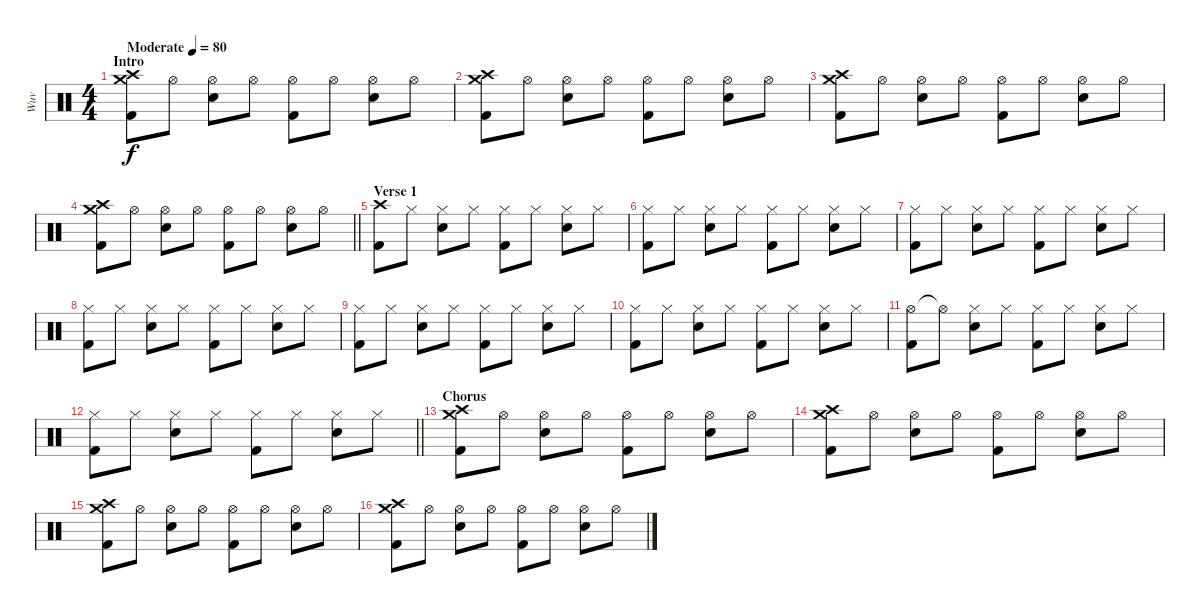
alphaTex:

\track ("Wuv" "Wuv") {instrument percussion}
\staff {score}
\articulation defaults
\ts (4 4)
\section ("" "Intro")
\tempo (80 "Moderate")
\clef neutral
\ks c
("Crash high (hit)" "Crash medium (hit)" "Kick (hit) 2").8{dy f} "Hi-Hat (open)".8 ("Hi-Hat (open)" "Electric Snare (hit)").8 "Hi-Hat (open)".8 ("Hi-Hat (open)" "Kick (hit) 2").8 "Hi-Hat (open)".8 ("Hi-Hat (open)" "Electric Snare (hit)").8 "Hi-Hat (open)".8 |
("Crash high (hit)" "Crash medium (hit)" "Kick (hit) 2").8 "Hi-Hat (open)".8 ("Hi-Hat (open)" "Electric Snare (hit)").8 "Hi-Hat (open)".8 ("Hi-Hat (open)" "Kick (hit) 2").8 "Hi-Hat (open)".8 ("Hi-Hat (open)" "Electric Snare (hit)").8 "Hi-Hat (open)".8 |
("Crash high (hit)" "Crash medium (hit)" "Kick (hit) 2").8 "Hi-Hat (open)".8 ("Hi-Hat (open)" "Electric Snare (hit)").8 "Hi-Hat (open)".8 ("Hi-Hat (open)" "Kick (hit) 2").8 "Hi-Hat (open)".8 ("Hi-Hat (open)" "Electric Snare (hit)").8 "Hi-Hat (open)".8 |
\barLineRight lightlight
("Crash high (hit)" "Crash medium (hit)" "Kick (hit) 2").8 "Hi-Hat (open)".8 ("Hi-Hat (open)" "Electric Snare (hit)").8 "Hi-Hat (open)".8 ("Hi-Hat (open)" "Kick (hit) 2").8 "Hi-Hat (open)".8 ("Hi-Hat (open)" "Electric Snare (hit)").8 "Hi-Hat (open)".8 |
\section ("" "Verse 1")
("Crash high (hit)" "Kick (hit) 2").8 "Hi-Hat (closed)".8 ("Hi-Hat (closed)" "Electric Snare (hit)").8 "Hi-Hat (closed)".8 ("Hi-Hat (closed)" "Kick (hit) 2").8 "Hi-Hat (closed)".8 ("Hi-Hat (closed)" "Electric Snare (hit)").8 "Hi-Hat (closed)".8 |
("Hi-Hat (closed)" "Kick (hit) 2").8 "Hi-Hat (closed)".8 ("Hi-Hat (closed)" "Electric Snare (hit)").8 "Hi-Hat (closed)".8 ("Hi-Hat (closed)" "Kick (hit) 2").8 "Hi-Hat (closed)".8 ("Hi-Hat (closed)" "Electric Snare (hit)").8 "Hi-Hat (closed)".8 |
("Hi-Hat (closed)" "Kick (hit) 2").8 "Hi-Hat (closed)".8 ("Hi-Hat (closed)" "Electric Snare (hit)").8 "Hi-Hat (closed)".8 ("Hi-Hat (closed)" "Kick (hit) 2").8 "Hi-Hat (closed)".8 ("Hi-Hat (closed)" "Electric Snare (hit)").8 "Hi-Hat (closed)".8 |
("Hi-Hat (closed)" "Kick (hit) 2").8 "Hi-Hat (closed)".8 ("Hi-Hat (closed)" "Electric Snare (hit)").8 "Hi-Hat (closed)".8 ("Hi-Hat (closed)" "Kick (hit) 2").8 "Hi-Hat (closed)".8 ("Hi-Hat (closed)" "Electric Snare (hit)").8 "Hi-Hat (closed)".8 |
("Hi-Hat (closed)" "Kick (hit) 2").8 "Hi-Hat (closed)".8 ("Hi-Hat (closed)" "Electric Snare (hit)").8 "Hi-Hat (closed)".8 ("Hi-Hat (closed)" "Kick (hit) 2").8 "Hi-Hat (closed)".8 ("Hi-Hat (closed)" "Electric Snare (hit)").8 "Hi-Hat (closed)".8 |
("Hi-Hat (closed)" "Kick (hit) 2").8 "Hi-Hat (closed)".8 ("Hi-Hat (closed)" "Electric Snare (hit)").8 "Hi-Hat (closed)".8 ("Hi-Hat (closed)" "Kick (hit) 2").8 "Hi-Hat (closed)".8 ("Hi-Hat (closed)" "Electric Snare (hit)").8 "Hi-Hat (closed)".8 |
("Hi-Hat (open)" "Kick (hit) 2").8 "Hi-Hat (open)"{t}.8 ("Hi-Hat (closed)" "Electric Snare (hit)").8 "Hi-Hat (closed)".8 ("Hi-Hat (closed)" "Kick (hit) 2").8 "Hi-Hat (closed)".8 ("Hi-Hat (closed)" "Electric Snare (hit)").8 "Hi-Hat (closed)".8 |
\barLineRight lightlight
("Hi-Hat (closed)" "Kick (hit) 2").8 "Hi-Hat (closed)".8 ("Hi-Hat (closed)" "Electric Snare (hit)").8 "Hi-Hat (closed)".8 ("Hi-Hat (closed)" "Kick (hit) 2").8 "Hi-Hat (closed)".8 ("Hi-Hat (closed)" "Electric Snare (hit)").8 "Hi-Hat (closed)".8 |
\section ("" "Chorus")
("Crash high (hit)" "Crash medium (hit)" "Kick (hit) 2").8 "Hi-Hat (open)".8 ("Hi-Hat (open)" "Electric Snare (hit)").8 "Hi-Hat (open)".8 ("Hi-Hat (open)" "Kick (hit) 2").8 "Hi-Hat (open)".8 ("Hi-Hat (open)" "Electric Snare (hit)").8 "Hi-Hat (open)".8 |
("Crash high (hit)" "Crash medium (hit)" "Kick (hit) 2").8 "Hi-Hat (open)".8 ("Hi-Hat (open)" "Electric Snare (hit)").8 "Hi-Hat (open)".8 ("Hi-Hat (open)" "Kick (hit) 2").8 "Hi-Hat (open)".8 ("Hi-Hat (open)" "Electric Snare (hit)").8 "Hi-Hat (open)".8 |
("Crash high (hit)" "Crash medium (hit)" "Kick (hit) 2").8 "Hi-Hat (open)".8 ("Hi-Hat (open)" "Electric Snare (hit)").8 "Hi-Hat (open)".8 ("Hi-Hat (open)" "Kick (hit) 2").8 "Hi-Hat (open)".8 ("Hi-Hat (open)" "Electric Snare (hit)").8 "Hi-Hat (open)".8 |
("Crash high (hit)" "Crash medium (hit)" "Kick (hit) 2").8 "Hi-Hat (open)".8 ("Hi-Hat (open)" "Electric Snare (hit)").8 "Hi-Hat (open)".8 ("Hi-Hat (open)" "Kick (hit) 2").8 "Hi-Hat (open)".8 ("Hi-Hat (open)" "Electric Snare (hit)").8 "Hi-Hat (open)".8
